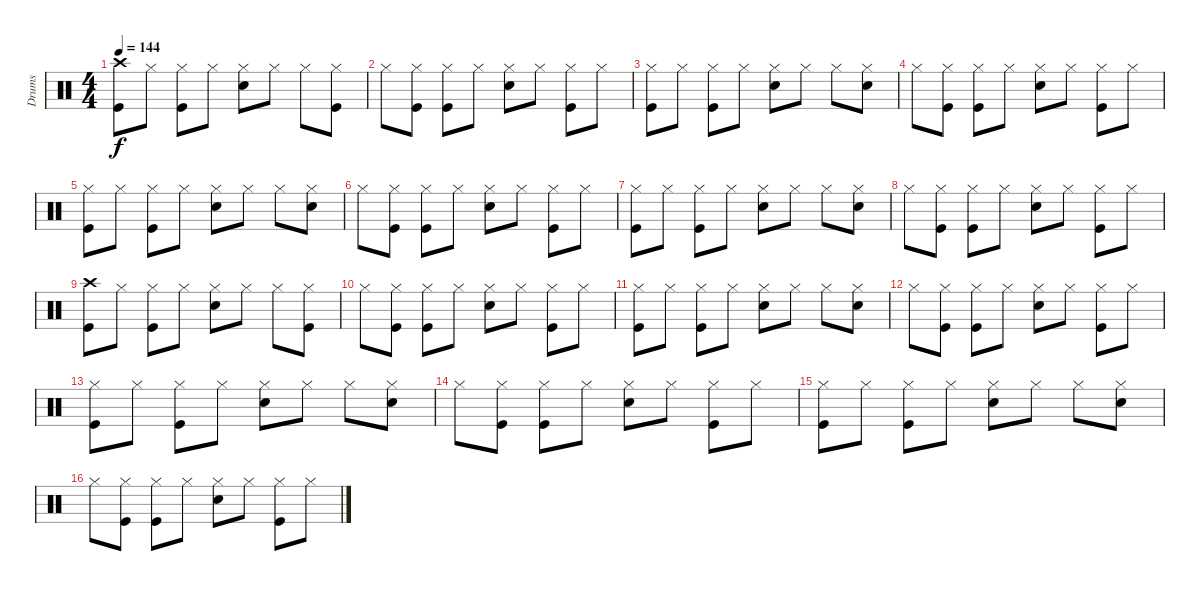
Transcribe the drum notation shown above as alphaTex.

\track ("Drums" "Drums") {instrument percussion}
\staff {score}
\articulation defaults
\ts (4 4)
\tempo 144
\clef neutral
\ks c
("Crash high (hit)" "Kick (hit)").8{dy f} "Hi-Hat (closed)".8 ("Hi-Hat (closed)" "Kick (hit)").8 "Hi-Hat (closed)".8 ("Hi-Hat (closed)" "Snare (hit) 2").8 "Hi-Hat (closed)".8 "Hi-Hat (closed)".8 ("Hi-Hat (closed)" "Kick (hit)").8 |
"Hi-Hat (closed)".8 ("Hi-Hat (closed)" "Kick (hit)").8 ("Hi-Hat (closed)" "Kick (hit)").8 "Hi-Hat (closed)".8 ("Hi-Hat (closed)" "Snare (hit) 2").8 "Hi-Hat (closed)".8 ("Hi-Hat (closed)" "Kick (hit)").8 "Hi-Hat (closed)".8 |
("Hi-Hat (closed)" "Kick (hit)").8 "Hi-Hat (closed)".8 ("Hi-Hat (closed)" "Kick (hit)").8 "Hi-Hat (closed)".8 ("Hi-Hat (closed)" "Snare (hit) 2").8 "Hi-Hat (closed)".8 "Hi-Hat (closed)".8 ("Hi-Hat (closed)" "Snare (hit) 2").8 |
"Hi-Hat (closed)".8 ("Hi-Hat (closed)" "Kick (hit)").8 ("Hi-Hat (closed)" "Kick (hit)").8 "Hi-Hat (closed)".8 ("Hi-Hat (closed)" "Snare (hit) 2").8 "Hi-Hat (closed)".8 ("Hi-Hat (closed)" "Kick (hit)").8 "Hi-Hat (closed)".8 |
("Hi-Hat (closed)" "Kick (hit)").8 "Hi-Hat (closed)".8 ("Hi-Hat (closed)" "Kick (hit)").8 "Hi-Hat (closed)".8 ("Hi-Hat (closed)" "Snare (hit) 2").8 "Hi-Hat (closed)".8 "Hi-Hat (closed)".8 ("Hi-Hat (closed)" "Snare (hit) 2").8 |
"Hi-Hat (closed)".8 ("Hi-Hat (closed)" "Kick (hit)").8 ("Hi-Hat (closed)" "Kick (hit)").8 "Hi-Hat (closed)".8 ("Hi-Hat (closed)" "Snare (hit) 2").8 "Hi-Hat (closed)".8 ("Hi-Hat (closed)" "Kick (hit)").8 "Hi-Hat (closed)".8 |
("Hi-Hat (closed)" "Kick (hit)").8 "Hi-Hat (closed)".8 ("Hi-Hat (closed)" "Kick (hit)").8 "Hi-Hat (closed)".8 ("Hi-Hat (closed)" "Snare (hit) 2").8 "Hi-Hat (closed)".8 "Hi-Hat (closed)".8 ("Hi-Hat (closed)" "Snare (hit) 2").8 |
"Hi-Hat (closed)".8 ("Hi-Hat (closed)" "Kick (hit)").8 ("Hi-Hat (closed)" "Kick (hit)").8 "Hi-Hat (closed)".8 ("Hi-Hat (closed)" "Snare (hit) 2").8 "Hi-Hat (closed)".8 ("Hi-Hat (closed)" "Kick (hit)").8 "Hi-Hat (closed)".8 |
("Crash high (hit)" "Kick (hit)").8 "Hi-Hat (closed)".8 ("Hi-Hat (closed)" "Kick (hit)").8 "Hi-Hat (closed)".8 ("Hi-Hat (closed)" "Snare (hit) 2").8 "Hi-Hat (closed)".8 "Hi-Hat (closed)".8 ("Hi-Hat (closed)" "Kick (hit)").8 |
"Hi-Hat (closed)".8 ("Hi-Hat (closed)" "Kick (hit)").8 ("Hi-Hat (closed)" "Kick (hit)").8 "Hi-Hat (closed)".8 ("Hi-Hat (closed)" "Snare (hit) 2").8 "Hi-Hat (closed)".8 ("Hi-Hat (closed)" "Kick (hit)").8 "Hi-Hat (closed)".8 |
("Hi-Hat (closed)" "Kick (hit)").8 "Hi-Hat (closed)".8 ("Hi-Hat (closed)" "Kick (hit)").8 "Hi-Hat (closed)".8 ("Hi-Hat (closed)" "Snare (hit) 2").8 "Hi-Hat (closed)".8 "Hi-Hat (closed)".8 ("Hi-Hat (closed)" "Snare (hit) 2").8 |
"Hi-Hat (closed)".8 ("Hi-Hat (closed)" "Kick (hit)").8 ("Hi-Hat (closed)" "Kick (hit)").8 "Hi-Hat (closed)".8 ("Hi-Hat (closed)" "Snare (hit) 2").8 "Hi-Hat (closed)".8 ("Hi-Hat (closed)" "Kick (hit)").8 "Hi-Hat (closed)".8 |
("Hi-Hat (closed)" "Kick (hit)").8 "Hi-Hat (closed)".8 ("Hi-Hat (closed)" "Kick (hit)").8 "Hi-Hat (closed)".8 ("Hi-Hat (closed)" "Snare (hit) 2").8 "Hi-Hat (closed)".8 "Hi-Hat (closed)".8 ("Hi-Hat (closed)" "Snare (hit) 2").8 |
"Hi-Hat (closed)".8 ("Hi-Hat (closed)" "Kick (hit)").8 ("Hi-Hat (closed)" "Kick (hit)").8 "Hi-Hat (closed)".8 ("Hi-Hat (closed)" "Snare (hit) 2").8 "Hi-Hat (closed)".8 ("Hi-Hat (closed)" "Kick (hit)").8 "Hi-Hat (closed)".8 |
("Hi-Hat (closed)" "Kick (hit)").8 "Hi-Hat (closed)".8 ("Hi-Hat (closed)" "Kick (hit)").8 "Hi-Hat (closed)".8 ("Hi-Hat (closed)" "Snare (hit) 2").8 "Hi-Hat (closed)".8 "Hi-Hat (closed)".8 ("Hi-Hat (closed)" "Snare (hit) 2").8 |
"Hi-Hat (closed)".8 ("Hi-Hat (closed)" "Kick (hit)").8 ("Hi-Hat (closed)" "Kick (hit)").8 "Hi-Hat (closed)".8 ("Hi-Hat (closed)" "Snare (hit) 2").8 "Hi-Hat (closed)".8 ("Hi-Hat (closed)" "Kick (hit)").8 "Hi-Hat (closed)".8
